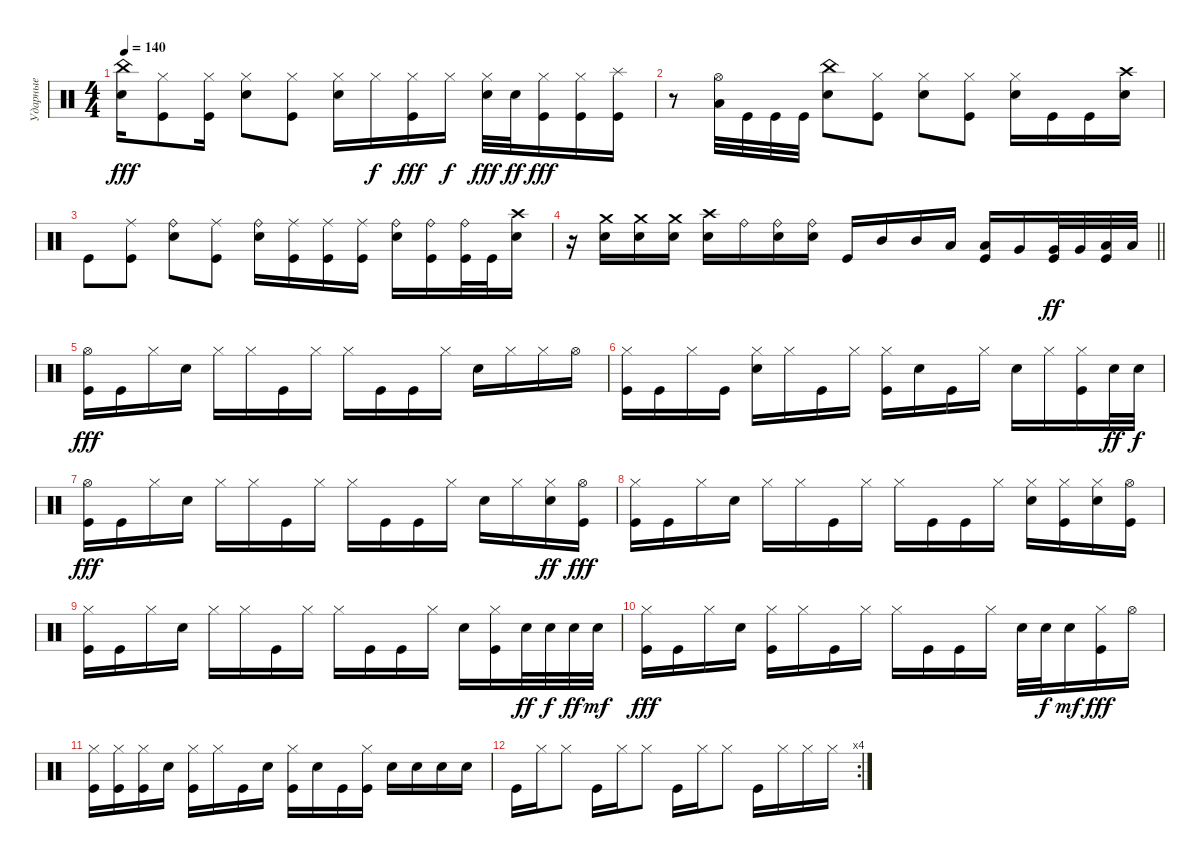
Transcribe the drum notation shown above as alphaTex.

\track ("Ударные" "Ударные") {instrument percussion}
\staff {score}
\articulation defaults
\ts (4 4)
\tempo 140
\clef neutral
\ks c
("China (hit)" "Electric Snare (hit)").16{dy fff} ("Hi-Hat (closed)" "Kick (hit)").8 ("Hi-Hat (closed)" "Kick (hit)").16 ("Hi-Hat (closed)" "Electric Snare (hit)").8 ("Hi-Hat (closed)" "Kick (hit)").8 ("Hi-Hat (closed)" "Electric Snare (hit)").16 "Hi-Hat (closed)".16{dy f} ("Hi-Hat (closed)" "Kick (hit)").16{dy fff} "Hi-Hat (closed)".16{dy f} ("Hi-Hat (closed)" "Electric Snare (hit)").32{dy fff} "Electric Snare (hit)".32{dy ff} ("Hi-Hat (closed)" "Kick (hit)").16{dy fff} ("Hi-Hat (closed)" "Kick (hit)").16 ("Splash (hit)" "Kick (hit)").16 |
r.8 ("Low Tom (hit)" "Hi-Hat (open)").32 "Kick (hit)".32 "Kick (hit)".32 "Kick (hit)".32 ("China (hit)" "Electric Snare (hit)").8 ("Hi-Hat (closed)" "Kick (hit)").8 ("Hi-Hat (closed)" "Electric Snare (hit)").8 ("Hi-Hat (closed)" "Kick (hit)").8 ("Hi-Hat (closed)" "Electric Snare (hit)").16 "Kick (hit)".16 "Kick (hit)".16 ("Crash high (hit)" "Electric Snare (hit)").16 |
"Kick (hit)".8 ("Ride (middle)" "Kick (hit)").8 ("Ride (bell)" "Electric Snare (hit)").8 ("Ride (middle)" "Kick (hit)").8 ("Ride (bell)" "Electric Snare (hit)").16 ("Ride (middle)" "Kick (hit)").16 ("Ride (middle)" "Kick (hit)").16 ("Ride (middle)" "Kick (hit)").16 ("Ride (bell)" "Electric Snare (hit)").16 ("Ride (bell)" "Kick (hit)").16 ("Ride (bell)" "Kick (hit)").32 "Kick (hit)".32 ("Crash high (hit)" "Electric Snare (hit)").16 |
\barLineRight lightlight
r.16 ("Crash medium (hit)" "Electric Snare (hit)").16 ("Crash medium (hit)" "Electric Snare (hit)").16 ("Crash medium (hit)" "Electric Snare (hit)").16 ("Crash high (hit)" "Electric Snare (hit)").16 "Ride (bell)".16 ("Ride (bell)" "Electric Snare (hit)").16 ("Ride (bell)" "Electric Snare (hit)").16 "Kick (hit)".16 "Mid Tom (hit)".16 "Mid Tom (hit)".16 "Low Tom (hit)".16 ("Low Tom (hit)" "Kick (hit)").16 "Very Low Tom (hit)".16 ("Very Low Tom (hit)" "Kick (hit)").32{dy ff} "Very Low Tom (hit)".32 ("Low Floor Tom (hit)" "Kick (hit)").32 "Low Floor Tom (hit)".32 |
("Hi-Hat (open)" "Kick (hit)").16{dy fff} "Kick (hit)".16 "Hi-Hat (closed)".16 "Electric Snare (hit)".16 "Hi-Hat (closed)".16 "Hi-Hat (closed)".16 "Kick (hit)".16 "Hi-Hat (closed)".16 "Hi-Hat (closed)".16 "Kick (hit)".16 "Kick (hit)".16 "Hi-Hat (closed)".16 "Electric Snare (hit)".16 "Hi-Hat (closed)".16 "Hi-Hat (closed)".16 "Hi-Hat (open)".16 |
("Hi-Hat (closed)" "Kick (hit)").16 "Kick (hit)".16 "Hi-Hat (closed)".16 "Kick (hit)".16 ("Hi-Hat (closed)" "Electric Snare (hit)").16 "Hi-Hat (closed)".16 "Kick (hit)".16 "Hi-Hat (closed)".16 ("Hi-Hat (closed)" "Kick (hit)").16 "Electric Snare (hit)".16 "Kick (hit)".16 "Hi-Hat (closed)".16 "Electric Snare (hit)".16 "Hi-Hat (closed)".16 ("Hi-Hat (closed)" "Kick (hit)").16 "Electric Snare (hit)".32{dy ff} "Electric Snare (hit)".32{dy f} |
("Hi-Hat (open)" "Kick (hit)").16{dy fff} "Kick (hit)".16 "Hi-Hat (closed)".16 "Electric Snare (hit)".16 "Hi-Hat (closed)".16 "Hi-Hat (closed)".16 "Kick (hit)".16 "Hi-Hat (closed)".16 "Hi-Hat (closed)".16 "Kick (hit)".16 "Kick (hit)".16 "Hi-Hat (closed)".16 "Electric Snare (hit)".16 "Hi-Hat (closed)".16 ("Hi-Hat (closed)" "Electric Snare (hit)").16{dy ff} ("Hi-Hat (open)" "Kick (hit)").16{dy fff} |
("Hi-Hat (closed)" "Kick (hit)").16 "Kick (hit)".16 "Hi-Hat (closed)".16 "Electric Snare (hit)".16 "Hi-Hat (closed)".16 "Hi-Hat (closed)".16 "Kick (hit)".16 "Hi-Hat (closed)".16 "Hi-Hat (closed)".16 "Kick (hit)".16 "Kick (hit)".16 "Hi-Hat (closed)".16 ("Hi-Hat (closed)" "Electric Snare (hit)").16 ("Hi-Hat (closed)" "Kick (hit)").16 ("Hi-Hat (closed)" "Electric Snare (hit)").16 ("Hi-Hat (open)" "Kick (hit)").16 |
("Hi-Hat (closed)" "Kick (hit)").16 "Kick (hit)".16 "Hi-Hat (closed)".16 "Electric Snare (hit)".16 "Hi-Hat (closed)".16 "Hi-Hat (closed)".16 "Kick (hit)".16 "Hi-Hat (closed)".16 "Hi-Hat (closed)".16 "Kick (hit)".16 "Kick (hit)".16 "Hi-Hat (closed)".16 "Electric Snare (hit)".16 ("Hi-Hat (closed)" "Kick (hit)").16 "Electric Snare (hit)".32{dy ff} "Electric Snare (hit)".32{dy f} "Electric Snare (hit)".32{dy ff} "Electric Snare (hit)".32{dy mf} |
("Hi-Hat (closed)" "Kick (hit)").16{dy fff} "Kick (hit)".16 "Hi-Hat (closed)".16 "Electric Snare (hit)".16 ("Hi-Hat (closed)" "Kick (hit)").16 "Hi-Hat (closed)".16 "Kick (hit)".16 "Hi-Hat (closed)".16 "Hi-Hat (closed)".16 "Kick (hit)".16 "Kick (hit)".16 "Hi-Hat (closed)".16 "Electric Snare (hit)".32 "Electric Snare (hit)".32{dy f} "Electric Snare (hit)".16{dy mf} ("Hi-Hat (closed)" "Kick (hit)").16{dy fff} "Hi-Hat (open)".16 |
("Hi-Hat (closed)" "Kick (hit)").16 ("Hi-Hat (closed)" "Kick (hit)").16 ("Hi-Hat (closed)" "Kick (hit)").16 "Electric Snare (hit)".16 ("Hi-Hat (closed)" "Kick (hit)").16 "Hi-Hat (closed)".16 "Kick (hit)".16 "Electric Snare (hit)".16 ("Hi-Hat (closed)" "Kick (hit)").16 "Electric Snare (hit)".16 "Kick (hit)".16 ("Hi-Hat (closed)" "Kick (hit)").16 "Electric Snare (hit)".16 "Electric Snare (hit)".16 "Electric Snare (hit)".16 "Electric Snare (hit)".16 |
\rc 4 "Kick (hit)".16 "Hi-Hat (closed)".16 "Hi-Hat (closed)".8 "Kick (hit)".16 "Hi-Hat (closed)".16 "Hi-Hat (closed)".8 "Kick (hit)".16 "Hi-Hat (closed)".16 "Hi-Hat (closed)".8 "Kick (hit)".16 "Hi-Hat (closed)".16 "Hi-Hat (closed)".16 "Hi-Hat (closed)".16
